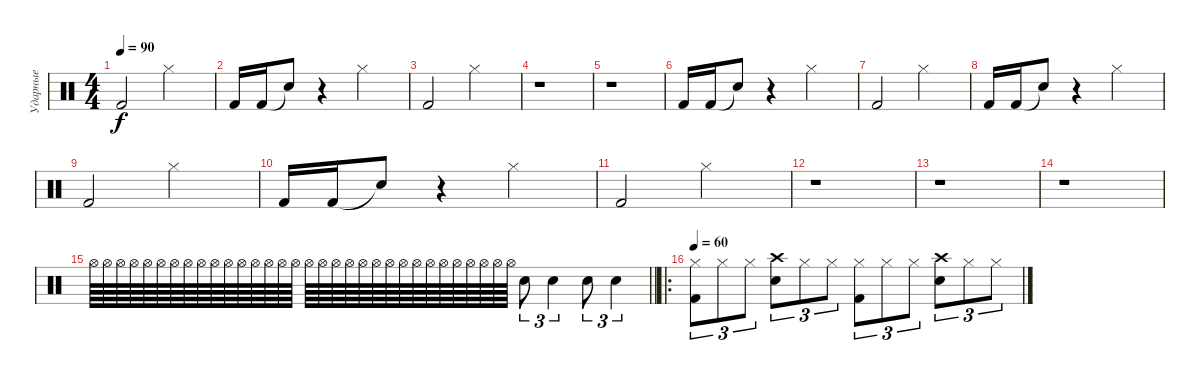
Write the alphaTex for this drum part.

\track ("Ударные" "Ударные") {instrument percussion}
\staff {score}
\articulation defaults
\ts (4 4)
\tempo 90
\clef neutral
\ks c "Kick (hit) 2".2{dy f} "Hi-Hat (closed)".2
|
"Kick (hit) 2".16 "Kick (hit) 2".16 "Snare (hit)"{t}.8 r.4 "Hi-Hat (closed)".2 |
"Kick (hit) 2".2 "Hi-Hat (closed)".2 |
r.1 |
r.1 |
"Kick (hit) 2".16 "Kick (hit) 2".16 "Snare (hit)"{t}.8 r.4 "Hi-Hat (closed)".2 |
"Kick (hit) 2".2 "Hi-Hat (closed)".2 |
"Kick (hit) 2".16 "Kick (hit) 2".16 "Snare (hit)"{t}.8 r.4 "Hi-Hat (closed)".2 |
"Kick (hit) 2".2 "Hi-Hat (closed)".2 |
"Kick (hit) 2".16 "Kick (hit) 2".16 "Snare (hit)"{t}.8 r.4 "Hi-Hat (closed)".2 |
"Kick (hit) 2".2 "Hi-Hat (closed)".2 |
r.1 |
r.1 |
r.1{volume 5} |
\barLineRight lightlight "Hi-Hat (open)".64{volume 10} "Hi-Hat (open)".64 "Hi-Hat (open)".64 "Hi-Hat (open)".64 "Hi-Hat (open)".64 "Hi-Hat (open)".64 "Hi-Hat (open)".64 "Hi-Hat (open)".64 "Hi-Hat (open)".64 "Hi-Hat (open)".64 "Hi-Hat (open)".64 "Hi-Hat (open)".64 "Hi-Hat (open)".64 "Hi-Hat (open)".64 "Hi-Hat (open)".64 "Hi-Hat (open)".64 "Hi-Hat (open)".64 "Hi-Hat (open)".64 "Hi-Hat (open)".64 "Hi-Hat (open)".64 "Hi-Hat (open)".64 "Hi-Hat (open)".64 "Hi-Hat (open)".64 "Hi-Hat (open)".64 "Hi-Hat (open)".64 "Hi-Hat (open)".64 "Hi-Hat (open)".64 "Hi-Hat (open)".64 "Hi-Hat (open)".64 "Hi-Hat (open)".64 "Hi-Hat (open)".64 "Hi-Hat (open)".64 "Snare (hit) 2".8{tu (3 2)} "Snare (hit) 2".4{tu (3 2)} "Snare (hit) 2".8{tu (3 2)} "Snare (hit) 2".4{tu (3 2)}
|
\ro
\tempo 60
("Kick (hit) 2" "Hi-Hat (closed)").8{tu (3 2)} "Hi-Hat (closed)".8{tu (3 2)} "Hi-Hat (closed)".8{tu (3 2)} ("Snare (hit) 2" "Crash high (hit)").8{tu (3 2)} "Hi-Hat (closed)".8{tu (3 2)} "Hi-Hat (closed)".8{tu (3 2)} ("Kick (hit) 2" "Hi-Hat (closed)").8{tu (3 2)} "Hi-Hat (closed)".8{tu (3 2)} "Hi-Hat (closed)".8{tu (3 2)} ("Snare (hit) 2" "Crash high (hit)").8{tu (3 2)} "Hi-Hat (closed)".8{tu (3 2)} "Hi-Hat (closed)".8{tu (3 2)}
